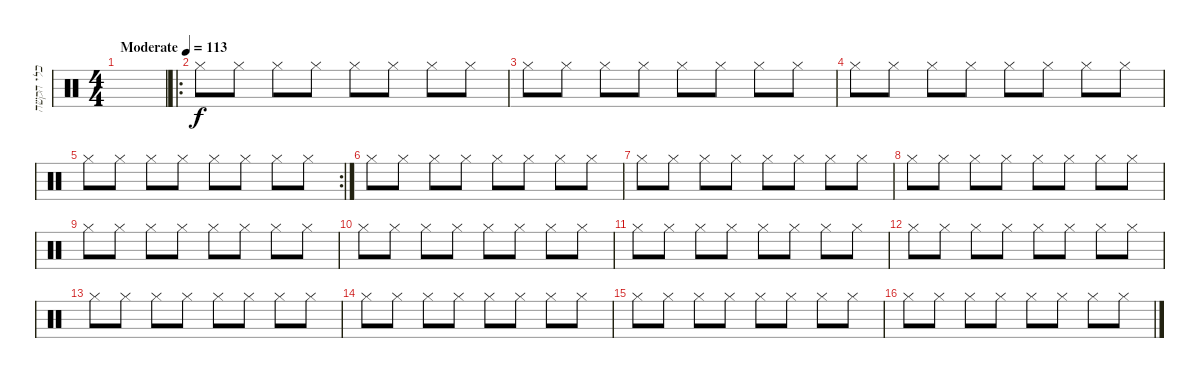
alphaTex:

\track ("כלי הקשה" "כלי הקשה") {instrument percussion}
\staff {score}
\articulation defaults
\ts (4 4)
\tempo (113 "Moderate")
\clef neutral
\ks c
|
\ro "Hi-Hat (closed)".8 "Hi-Hat (closed)".8 "Hi-Hat (closed)".8 "Hi-Hat (closed)".8 "Hi-Hat (closed)".8 "Hi-Hat (closed)".8 "Hi-Hat (closed)".8 "Hi-Hat (closed)".8
|
"Hi-Hat (closed)".8 "Hi-Hat (closed)".8 "Hi-Hat (closed)".8 "Hi-Hat (closed)".8 "Hi-Hat (closed)".8 "Hi-Hat (closed)".8 "Hi-Hat (closed)".8 "Hi-Hat (closed)".8 |
"Hi-Hat (closed)".8 "Hi-Hat (closed)".8 "Hi-Hat (closed)".8 "Hi-Hat (closed)".8 "Hi-Hat (closed)".8 "Hi-Hat (closed)".8 "Hi-Hat (closed)".8 "Hi-Hat (closed)".8 |
\rc 2 "Hi-Hat (closed)".8 "Hi-Hat (closed)".8 "Hi-Hat (closed)".8 "Hi-Hat (closed)".8 "Hi-Hat (closed)".8 "Hi-Hat (closed)".8 "Hi-Hat (closed)".8 "Hi-Hat (closed)".8
|
"Hi-Hat (closed)".8 "Hi-Hat (closed)".8 "Hi-Hat (closed)".8 "Hi-Hat (closed)".8 "Hi-Hat (closed)".8 "Hi-Hat (closed)".8 "Hi-Hat (closed)".8 "Hi-Hat (closed)".8 |
"Hi-Hat (closed)".8 "Hi-Hat (closed)".8 "Hi-Hat (closed)".8 "Hi-Hat (closed)".8 "Hi-Hat (closed)".8 "Hi-Hat (closed)".8 "Hi-Hat (closed)".8 "Hi-Hat (closed)".8 |
"Hi-Hat (closed)".8 "Hi-Hat (closed)".8 "Hi-Hat (closed)".8 "Hi-Hat (closed)".8 "Hi-Hat (closed)".8 "Hi-Hat (closed)".8 "Hi-Hat (closed)".8 "Hi-Hat (closed)".8 |
"Hi-Hat (closed)".8 "Hi-Hat (closed)".8 "Hi-Hat (closed)".8 "Hi-Hat (closed)".8 "Hi-Hat (closed)".8 "Hi-Hat (closed)".8 "Hi-Hat (closed)".8 "Hi-Hat (closed)".8 |
"Hi-Hat (closed)".8 "Hi-Hat (closed)".8 "Hi-Hat (closed)".8 "Hi-Hat (closed)".8 "Hi-Hat (closed)".8 "Hi-Hat (closed)".8 "Hi-Hat (closed)".8 "Hi-Hat (closed)".8 |
"Hi-Hat (closed)".8 "Hi-Hat (closed)".8 "Hi-Hat (closed)".8 "Hi-Hat (closed)".8 "Hi-Hat (closed)".8 "Hi-Hat (closed)".8 "Hi-Hat (closed)".8 "Hi-Hat (closed)".8 |
"Hi-Hat (closed)".8 "Hi-Hat (closed)".8 "Hi-Hat (closed)".8 "Hi-Hat (closed)".8 "Hi-Hat (closed)".8 "Hi-Hat (closed)".8 "Hi-Hat (closed)".8 "Hi-Hat (closed)".8 |
"Hi-Hat (closed)".8 "Hi-Hat (closed)".8 "Hi-Hat (closed)".8 "Hi-Hat (closed)".8 "Hi-Hat (closed)".8 "Hi-Hat (closed)".8 "Hi-Hat (closed)".8 "Hi-Hat (closed)".8 |
"Hi-Hat (closed)".8 "Hi-Hat (closed)".8 "Hi-Hat (closed)".8 "Hi-Hat (closed)".8 "Hi-Hat (closed)".8 "Hi-Hat (closed)".8 "Hi-Hat (closed)".8 "Hi-Hat (closed)".8 |
"Hi-Hat (closed)".8 "Hi-Hat (closed)".8 "Hi-Hat (closed)".8 "Hi-Hat (closed)".8 "Hi-Hat (closed)".8 "Hi-Hat (closed)".8 "Hi-Hat (closed)".8 "Hi-Hat (closed)".8 |
"Hi-Hat (closed)".8 "Hi-Hat (closed)".8 "Hi-Hat (closed)".8 "Hi-Hat (closed)".8 "Hi-Hat (closed)".8 "Hi-Hat (closed)".8 "Hi-Hat (closed)".8 "Hi-Hat (closed)".8
